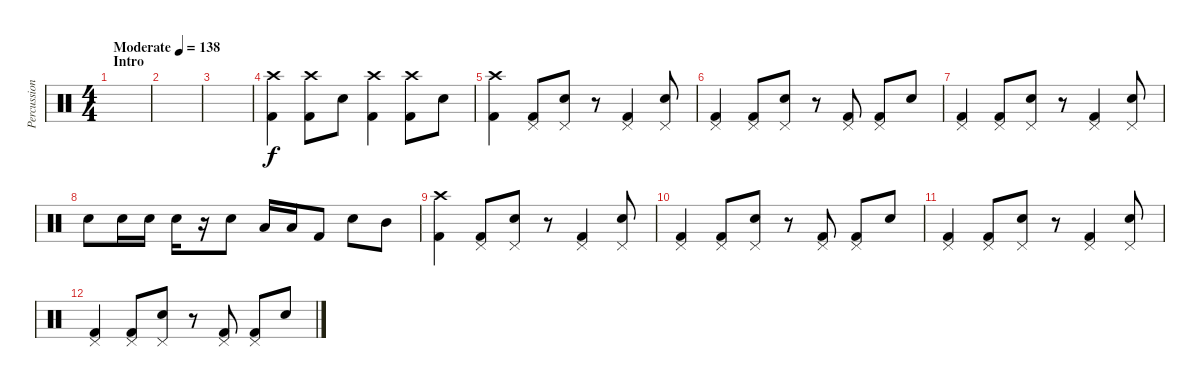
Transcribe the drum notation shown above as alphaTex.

\track ("Percussion" "Percussion") {instrument percussion}
\staff {score}
\articulation defaults
\ts (4 4)
\section ("" "Intro")
\tempo (138 "Moderate")
\clef neutral
\ks c
|
|
|
("Crash high (hit)" "Kick (hit) 2").4 ("Crash high (hit)" "Kick (hit) 2").8 "Electric Snare (hit)".8 ("Crash high (hit)" "Kick (hit) 2").4 ("Crash high (hit)" "Kick (hit) 2").8 "Electric Snare (hit)".8 |
("Crash high (hit)" "Kick (hit) 2").4 ("Pedal Hi-Hat (hit)" "Kick (hit) 2").8 ("Pedal Hi-Hat (hit)" "Electric Snare (hit)").8 r.8 ("Pedal Hi-Hat (hit)" "Kick (hit) 2").4 ("Pedal Hi-Hat (hit)" "Electric Snare (hit)").8 |
("Pedal Hi-Hat (hit)" "Kick (hit) 2").4 ("Pedal Hi-Hat (hit)" "Kick (hit) 2").8 ("Pedal Hi-Hat (hit)" "Electric Snare (hit)").8 r.8 ("Pedal Hi-Hat (hit)" "Kick (hit) 2").8 ("Pedal Hi-Hat (hit)" "Kick (hit) 2").8 "Electric Snare (hit)".8 |
("Pedal Hi-Hat (hit)" "Kick (hit) 2").4 ("Pedal Hi-Hat (hit)" "Kick (hit) 2").8 ("Pedal Hi-Hat (hit)" "Electric Snare (hit)").8 r.8 ("Pedal Hi-Hat (hit)" "Kick (hit) 2").4 ("Pedal Hi-Hat (hit)" "Electric Snare (hit)").8 |
"Electric Snare (hit)".8 "Electric Snare (hit)".16 "Electric Snare (hit)".16 "Electric Snare (hit)".16 r.16 "Electric Snare (hit)".8 "Low Floor Tom (hit)".16 "Low Tom (hit)".16 "Kick (hit) 2".8 "Electric Snare (hit)".8 "Mid Tom (hit)".8 |
("Crash high (hit)" "Kick (hit) 2").4 ("Pedal Hi-Hat (hit)" "Kick (hit) 2").8 ("Pedal Hi-Hat (hit)" "Electric Snare (hit)").8 r.8 ("Pedal Hi-Hat (hit)" "Kick (hit) 2").4 ("Pedal Hi-Hat (hit)" "Electric Snare (hit)").8 |
("Pedal Hi-Hat (hit)" "Kick (hit) 2").4 ("Pedal Hi-Hat (hit)" "Kick (hit) 2").8 ("Pedal Hi-Hat (hit)" "Electric Snare (hit)").8 r.8 ("Pedal Hi-Hat (hit)" "Kick (hit) 2").8 ("Pedal Hi-Hat (hit)" "Kick (hit) 2").8 "Electric Snare (hit)".8 |
("Pedal Hi-Hat (hit)" "Kick (hit) 2").4 ("Pedal Hi-Hat (hit)" "Kick (hit) 2").8 ("Pedal Hi-Hat (hit)" "Electric Snare (hit)").8 r.8 ("Pedal Hi-Hat (hit)" "Kick (hit) 2").4 ("Pedal Hi-Hat (hit)" "Electric Snare (hit)").8 |
("Pedal Hi-Hat (hit)" "Kick (hit) 2").4 ("Pedal Hi-Hat (hit)" "Kick (hit) 2").8 ("Pedal Hi-Hat (hit)" "Electric Snare (hit)").8 r.8 ("Pedal Hi-Hat (hit)" "Kick (hit) 2").8 ("Pedal Hi-Hat (hit)" "Kick (hit) 2").8 "Electric Snare (hit)".8
